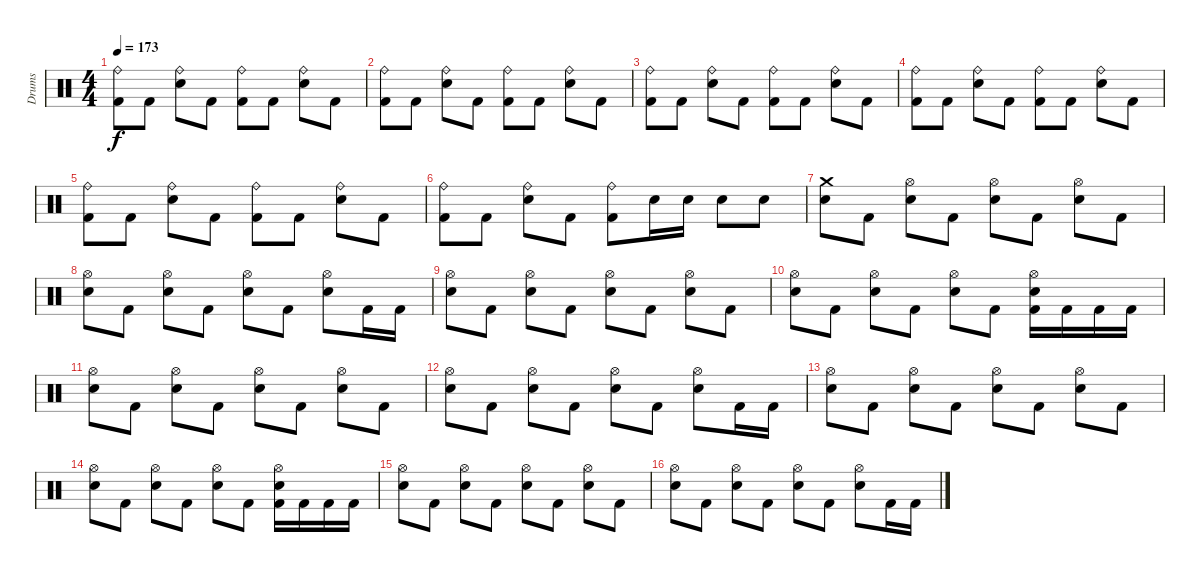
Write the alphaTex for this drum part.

\track ("Drums" "Drums") {instrument percussion}
\staff {score}
\articulation defaults
\ts (4 4)
\tempo 173
\clef neutral
\ks c
("Ride (bell)" "Kick (hit) 2").8{dy f} "Kick (hit) 2".8 ("Ride (bell)" "Snare (hit) 2").8 "Kick (hit) 2".8 ("Ride (bell)" "Kick (hit) 2").8 "Kick (hit) 2".8 ("Ride (bell)" "Snare (hit) 2").8 "Kick (hit) 2".8 |
("Ride (bell)" "Kick (hit) 2").8 "Kick (hit) 2".8 ("Ride (bell)" "Snare (hit) 2").8 "Kick (hit) 2".8 ("Ride (bell)" "Kick (hit) 2").8 "Kick (hit) 2".8 ("Ride (bell)" "Snare (hit) 2").8 "Kick (hit) 2".8 |
("Ride (bell)" "Kick (hit) 2").8 "Kick (hit) 2".8 ("Ride (bell)" "Snare (hit) 2").8 "Kick (hit) 2".8 ("Ride (bell)" "Kick (hit) 2").8 "Kick (hit) 2".8 ("Ride (bell)" "Snare (hit) 2").8 "Kick (hit) 2".8 |
("Ride (bell)" "Kick (hit) 2").8 "Kick (hit) 2".8 ("Ride (bell)" "Snare (hit) 2").8 "Kick (hit) 2".8 ("Ride (bell)" "Kick (hit) 2").8 "Kick (hit) 2".8 ("Ride (bell)" "Snare (hit) 2").8 "Kick (hit) 2".8 |
("Ride (bell)" "Kick (hit) 2").8 "Kick (hit) 2".8 ("Ride (bell)" "Snare (hit) 2").8 "Kick (hit) 2".8 ("Ride (bell)" "Kick (hit) 2").8 "Kick (hit) 2".8 ("Ride (bell)" "Snare (hit) 2").8 "Kick (hit) 2".8 |
("Ride (bell)" "Kick (hit) 2").8 "Kick (hit) 2".8 ("Ride (bell)" "Snare (hit) 2").8 "Kick (hit) 2".8 ("Ride (bell)" "Kick (hit) 2").8 "Snare (hit) 2".16 "Snare (hit) 2".16 "Snare (hit) 2".8 "Snare (hit) 2".8 |
("Crash medium (hit)" "Snare (hit) 2").8 "Kick (hit) 2".8 ("Hi-Hat (open)" "Snare (hit) 2").8 "Kick (hit) 2".8 ("Hi-Hat (open)" "Snare (hit) 2").8 "Kick (hit) 2".8 ("Hi-Hat (open)" "Snare (hit) 2").8 "Kick (hit) 2".8 |
("Hi-Hat (open)" "Snare (hit) 2").8 "Kick (hit) 2".8 ("Hi-Hat (open)" "Snare (hit) 2").8 "Kick (hit) 2".8 ("Hi-Hat (open)" "Snare (hit) 2").8 "Kick (hit) 2".8 ("Hi-Hat (open)" "Snare (hit) 2").8 "Kick (hit) 2".16 "Kick (hit) 2".16 |
("Hi-Hat (open)" "Snare (hit) 2").8 "Kick (hit) 2".8 ("Hi-Hat (open)" "Snare (hit) 2").8 "Kick (hit) 2".8 ("Hi-Hat (open)" "Snare (hit) 2").8 "Kick (hit) 2".8 ("Hi-Hat (open)" "Snare (hit) 2").8 "Kick (hit) 2".8 |
("Hi-Hat (open)" "Snare (hit) 2").8 "Kick (hit) 2".8 ("Hi-Hat (open)" "Snare (hit) 2").8 "Kick (hit) 2".8 ("Hi-Hat (open)" "Snare (hit) 2").8 "Kick (hit) 2".8 ("Hi-Hat (open)" "Snare (hit) 2" "Kick (hit) 2").16 "Kick (hit) 2".16 "Kick (hit) 2".16 "Kick (hit) 2".16 |
("Hi-Hat (open)" "Snare (hit) 2").8 "Kick (hit) 2".8 ("Hi-Hat (open)" "Snare (hit) 2").8 "Kick (hit) 2".8 ("Hi-Hat (open)" "Snare (hit) 2").8 "Kick (hit) 2".8 ("Hi-Hat (open)" "Snare (hit) 2").8 "Kick (hit) 2".8 |
("Hi-Hat (open)" "Snare (hit) 2").8 "Kick (hit) 2".8 ("Hi-Hat (open)" "Snare (hit) 2").8 "Kick (hit) 2".8 ("Hi-Hat (open)" "Snare (hit) 2").8 "Kick (hit) 2".8 ("Hi-Hat (open)" "Snare (hit) 2").8 "Kick (hit) 2".16 "Kick (hit) 2".16 |
("Hi-Hat (open)" "Snare (hit) 2").8 "Kick (hit) 2".8 ("Hi-Hat (open)" "Snare (hit) 2").8 "Kick (hit) 2".8 ("Hi-Hat (open)" "Snare (hit) 2").8 "Kick (hit) 2".8 ("Hi-Hat (open)" "Snare (hit) 2").8 "Kick (hit) 2".8 |
("Hi-Hat (open)" "Snare (hit) 2").8 "Kick (hit) 2".8 ("Hi-Hat (open)" "Snare (hit) 2").8 "Kick (hit) 2".8 ("Hi-Hat (open)" "Snare (hit) 2").8 "Kick (hit) 2".8 ("Hi-Hat (open)" "Snare (hit) 2" "Kick (hit) 2").16 "Kick (hit) 2".16 "Kick (hit) 2".16 "Kick (hit) 2".16 |
("Hi-Hat (open)" "Snare (hit) 2").8 "Kick (hit) 2".8 ("Hi-Hat (open)" "Snare (hit) 2").8 "Kick (hit) 2".8 ("Hi-Hat (open)" "Snare (hit) 2").8 "Kick (hit) 2".8 ("Hi-Hat (open)" "Snare (hit) 2").8 "Kick (hit) 2".8 |
("Hi-Hat (open)" "Snare (hit) 2").8 "Kick (hit) 2".8 ("Hi-Hat (open)" "Snare (hit) 2").8 "Kick (hit) 2".8 ("Hi-Hat (open)" "Snare (hit) 2").8 "Kick (hit) 2".8 ("Hi-Hat (open)" "Snare (hit) 2").8 "Kick (hit) 2".16 "Kick (hit) 2".16
